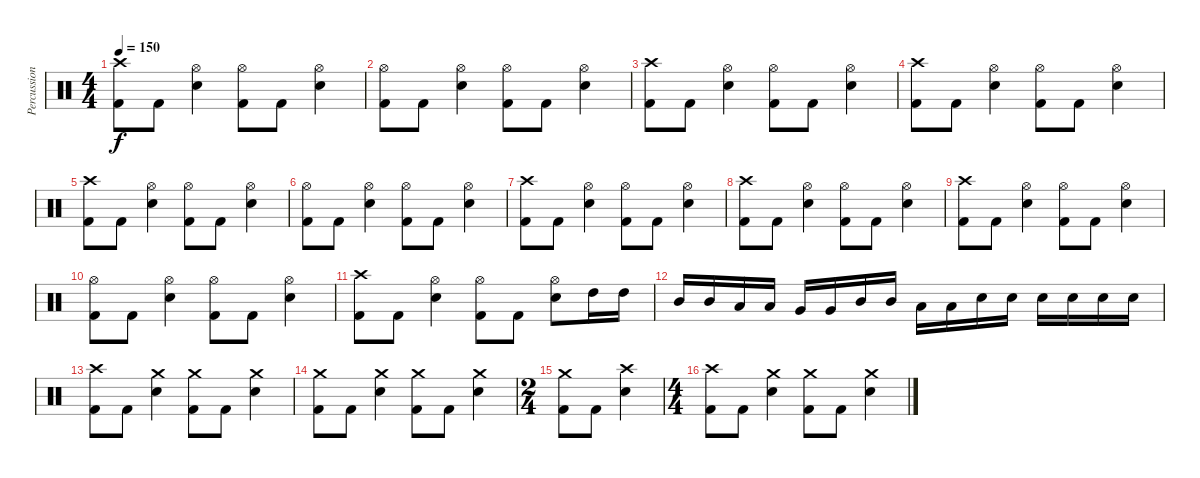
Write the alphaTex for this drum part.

\track ("Percussion" "Percussion") {instrument percussion}
\staff {score}
\articulation defaults
\ts (4 4)
\tempo 150
\clef neutral
\ks c
("Kick (hit) 2" "Crash high (hit)").8{dy f} "Kick (hit) 2".8 ("Electric Snare (hit)" "Hi-Hat (open)").4 ("Kick (hit) 2" "Hi-Hat (open)").8 "Kick (hit) 2".8 ("Electric Snare (hit)" "Hi-Hat (open)").4 |
("Kick (hit) 2" "Hi-Hat (open)").8 "Kick (hit) 2".8 ("Electric Snare (hit)" "Hi-Hat (open)").4 ("Kick (hit) 2" "Hi-Hat (open)").8 "Kick (hit) 2".8 ("Electric Snare (hit)" "Hi-Hat (open)").4 |
("Kick (hit) 2" "Crash high (hit)").8 "Kick (hit) 2".8 ("Electric Snare (hit)" "Hi-Hat (open)").4 ("Kick (hit) 2" "Hi-Hat (open)").8 "Kick (hit) 2".8 ("Electric Snare (hit)" "Hi-Hat (open)").4 |
("Kick (hit) 2" "Crash high (hit)").8 "Kick (hit) 2".8 ("Electric Snare (hit)" "Hi-Hat (open)").4 ("Kick (hit) 2" "Hi-Hat (open)").8 "Kick (hit) 2".8 ("Electric Snare (hit)" "Hi-Hat (open)").4 |
("Kick (hit) 2" "Crash high (hit)").8 "Kick (hit) 2".8 ("Electric Snare (hit)" "Hi-Hat (open)").4 ("Kick (hit) 2" "Hi-Hat (open)").8 "Kick (hit) 2".8 ("Electric Snare (hit)" "Hi-Hat (open)").4 |
("Kick (hit) 2" "Hi-Hat (open)").8 "Kick (hit) 2".8 ("Electric Snare (hit)" "Hi-Hat (open)").4 ("Kick (hit) 2" "Hi-Hat (open)").8 "Kick (hit) 2".8 ("Electric Snare (hit)" "Hi-Hat (open)").4 |
("Kick (hit) 2" "Crash high (hit)").8 "Kick (hit) 2".8 ("Electric Snare (hit)" "Hi-Hat (open)").4 ("Kick (hit) 2" "Hi-Hat (open)").8 "Kick (hit) 2".8 ("Electric Snare (hit)" "Hi-Hat (open)").4 |
("Kick (hit) 2" "Crash high (hit)").8 "Kick (hit) 2".8 ("Electric Snare (hit)" "Hi-Hat (open)").4 ("Kick (hit) 2" "Hi-Hat (open)").8 "Kick (hit) 2".8 ("Electric Snare (hit)" "Hi-Hat (open)").4 |
("Kick (hit) 2" "Crash high (hit)").8 "Kick (hit) 2".8 ("Electric Snare (hit)" "Hi-Hat (open)").4 ("Kick (hit) 2" "Hi-Hat (open)").8 "Kick (hit) 2".8 ("Electric Snare (hit)" "Hi-Hat (open)").4 |
("Kick (hit) 2" "Hi-Hat (open)").8 "Kick (hit) 2".8 ("Electric Snare (hit)" "Hi-Hat (open)").4 ("Kick (hit) 2" "Hi-Hat (open)").8 "Kick (hit) 2".8 ("Electric Snare (hit)" "Hi-Hat (open)").4 |
("Kick (hit) 2" "Crash high (hit)").8 "Kick (hit) 2".8 ("Electric Snare (hit)" "Hi-Hat (open)").4 ("Kick (hit) 2" "Hi-Hat (open)").8 "Kick (hit) 2".8 ("Electric Snare (hit)" "Hi-Hat (open)").8 "High Tom (hit)".16 "High Tom (hit)".16 |
"Mid Tom (hit)".16 "Mid Tom (hit)".16 "Low Tom (hit)".16 "Low Tom (hit)".16 "Very Low Tom (hit)".16 "Very Low Tom (hit)".16 "Mid Tom (hit)".16 "Mid Tom (hit)".16 "Low Tom (hit)".16 "Low Tom (hit)".16 "Electric Snare (hit)".16 "Electric Snare (hit)".16 "Electric Snare (hit)".16 "Electric Snare (hit)".16 "Electric Snare (hit)".16 "Electric Snare (hit)".16 |
("Kick (hit) 2" "Crash high (hit)").8 "Kick (hit) 2".8 ("Electric Snare (hit)" "Crash medium (hit)").4 ("Kick (hit) 2" "Crash medium (hit)").8 "Kick (hit) 2".8 ("Electric Snare (hit)" "Crash medium (hit)").4 |
("Kick (hit) 2" "Crash medium (hit)").8 "Kick (hit) 2".8 ("Electric Snare (hit)" "Crash medium (hit)").4 ("Kick (hit) 2" "Crash medium (hit)").8 "Kick (hit) 2".8 ("Electric Snare (hit)" "Crash medium (hit)").4 |
\ts (2 4)
("Kick (hit) 2" "Crash medium (hit)").8 "Kick (hit) 2".8 ("Electric Snare (hit)" "Crash high (hit)").4 |
\ts (4 4)
("Kick (hit) 2" "Crash high (hit)").8 "Kick (hit) 2".8 ("Electric Snare (hit)" "Crash medium (hit)").4 ("Kick (hit) 2" "Crash medium (hit)").8 "Kick (hit) 2".8 ("Electric Snare (hit)" "Crash medium (hit)").4
